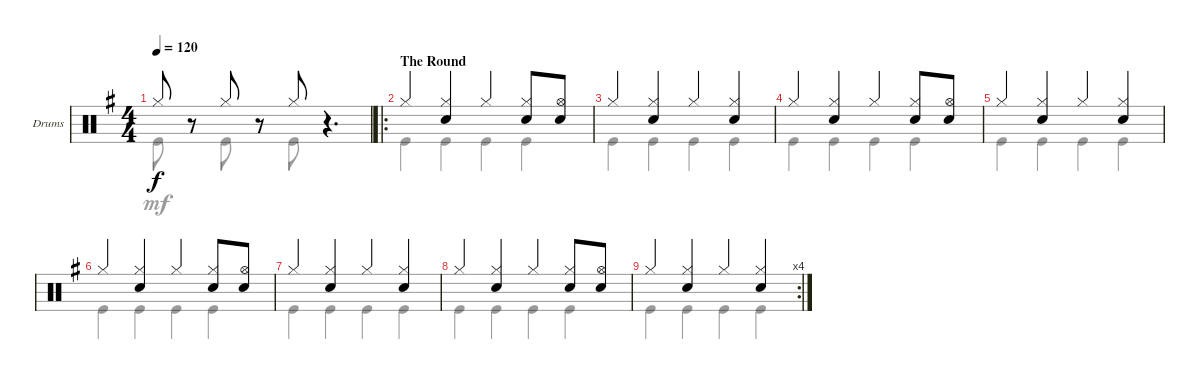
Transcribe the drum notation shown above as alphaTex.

\defaultSystemsLayout 4
\bracketExtendMode groupsimilarinstruments
\firstSystemTrackNameOrientation horizontal
\otherSystemsTrackNameOrientation horizontal
\track ("Drumkit" "Drums") {instrument percussion}
\staff {score}
\articulation defaults
\voice
\ts (4 4)
\tempo 120
\clef neutral
\scale
0.477178
\ks g "Hi-Hat (closed)".8{dy f}
r.8 "Hi-Hat (closed)".8 r.8 "Hi-Hat (closed)".8 r.4{d} |
\ro
\section ("" "The Round")
\scale
0.31187 "Hi-Hat (closed)".4 ("Snare (hit) 2" "Hi-Hat (closed)").4 "Hi-Hat (closed)".4 ("Snare (hit) 2" "Hi-Hat (closed)").8 ("Snare (hit) 2" "Hi-Hat (open)").8 |
\scale
0.304576 "Hi-Hat (closed)".4 ("Snare (hit) 2" "Hi-Hat (closed)").4 "Hi-Hat (closed)".4 ("Snare (hit) 2" "Hi-Hat (closed)").4 |
\scale
0.311224 "Hi-Hat (closed)".4 ("Snare (hit) 2" "Hi-Hat (closed)").4 "Hi-Hat (closed)".4 ("Snare (hit) 2" "Hi-Hat (closed)").8 ("Snare (hit) 2" "Hi-Hat (open)").8 |
\scale
0.262626 "Hi-Hat (closed)".4 ("Snare (hit) 2" "Hi-Hat (closed)").4 "Hi-Hat (closed)".4 ("Snare (hit) 2" "Hi-Hat (closed)").4 |
\scale
0.273701 "Hi-Hat (closed)".4 ("Snare (hit) 2" "Hi-Hat (closed)").4 "Hi-Hat (closed)".4 ("Snare (hit) 2" "Hi-Hat (closed)").8 ("Snare (hit) 2" "Hi-Hat (open)").8 |
\scale
0.277154 "Hi-Hat (closed)".4 ("Snare (hit) 2" "Hi-Hat (closed)").4 "Hi-Hat (closed)".4 ("Snare (hit) 2" "Hi-Hat (closed)").4 |
\scale
0.28481 "Hi-Hat (closed)".4 ("Snare (hit) 2" "Hi-Hat (closed)").4 "Hi-Hat (closed)".4 ("Snare (hit) 2" "Hi-Hat (closed)").8 ("Snare (hit) 2" "Hi-Hat (open)").8 |
\rc 4
\scale
0.235668 "Hi-Hat (closed)".4 ("Snare (hit) 2" "Hi-Hat (closed)").4 "Hi-Hat (closed)".4 ("Snare (hit) 2" "Hi-Hat (closed)").4
\voice
\clef neutral
\ottava regular
\simile none
\scale
0.477178
\ks g "Kick (hit)".8{dy mf}
r.8 "Kick (hit)".8 r.8 "Kick (hit)".8 r.4{d} |
\scale
0.31187 "Kick (hit)".4 "Kick (hit)".4 "Kick (hit)".4 "Kick (hit)".4 |
\scale
0.304576 "Kick (hit)".4 "Kick (hit)".4 "Kick (hit)".4 "Kick (hit)".4 |
\scale
0.311224 "Kick (hit)".4 "Kick (hit)".4 "Kick (hit)".4 "Kick (hit)".4 |
\scale
0.262626 "Kick (hit)".4 "Kick (hit)".4 "Kick (hit)".4 "Kick (hit)".4 |
\scale
0.273701 "Kick (hit)".4 "Kick (hit)".4 "Kick (hit)".4 "Kick (hit)".4 |
\scale
0.277154 "Kick (hit)".4 "Kick (hit)".4 "Kick (hit)".4 "Kick (hit)".4 |
\scale
0.28481 "Kick (hit)".4 "Kick (hit)".4 "Kick (hit)".4 "Kick (hit)".4 |
\scale
0.235668 "Kick (hit)".4 "Kick (hit)".4 "Kick (hit)".4 "Kick (hit)".4
